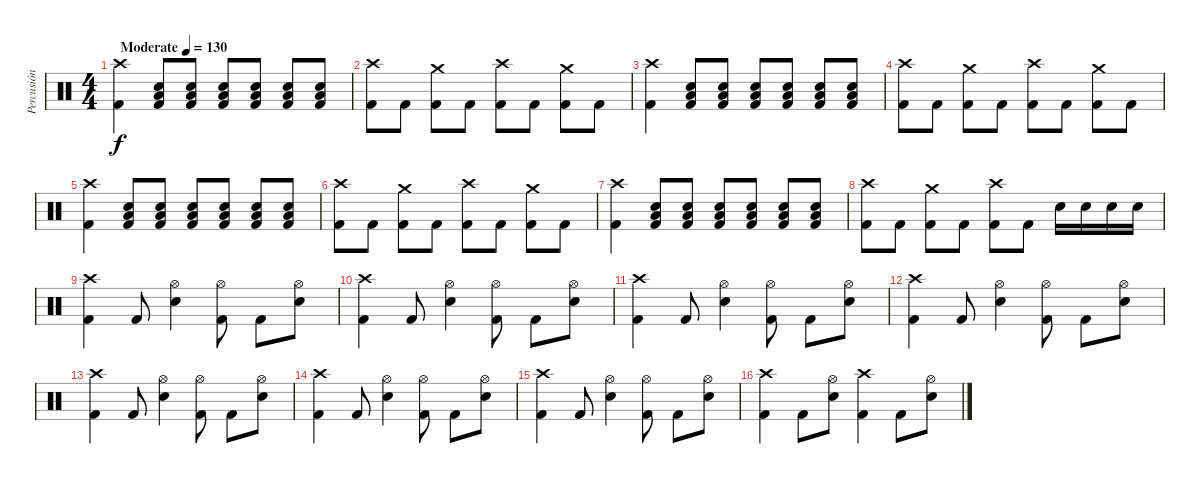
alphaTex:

\track ("Percusión" "Percusión") {instrument percussion}
\staff {score}
\articulation defaults
\ts (4 4)
\tempo (130 "Moderate")
\clef neutral
\ks c
("Crash high (hit)" "Kick (hit) 2").4{dy f} ("Low Floor Tom (hit)" "Snare (hit) 2" "Kick (hit) 2").8 ("Low Floor Tom (hit)" "Snare (hit) 2" "Kick (hit) 2").8 ("Low Floor Tom (hit)" "Snare (hit) 2" "Kick (hit) 2").8 ("Low Floor Tom (hit)" "Snare (hit) 2" "Kick (hit) 2").8 ("Low Floor Tom (hit)" "Snare (hit) 2" "Kick (hit) 2").8 ("Low Floor Tom (hit)" "Snare (hit) 2" "Kick (hit) 2").8 |
("Crash high (hit)" "Kick (hit) 2").8 "Kick (hit) 2".8 ("Crash medium (hit)" "Kick (hit) 2").8 "Kick (hit) 2".8 ("Crash high (hit)" "Kick (hit) 2").8 "Kick (hit) 2".8 ("Crash medium (hit)" "Kick (hit) 2").8 "Kick (hit) 2".8 |
("Crash high (hit)" "Kick (hit) 2").4 ("Low Floor Tom (hit)" "Snare (hit) 2" "Kick (hit) 2").8 ("Low Floor Tom (hit)" "Snare (hit) 2" "Kick (hit) 2").8 ("Low Floor Tom (hit)" "Snare (hit) 2" "Kick (hit) 2").8 ("Low Floor Tom (hit)" "Snare (hit) 2" "Kick (hit) 2").8 ("Low Floor Tom (hit)" "Snare (hit) 2" "Kick (hit) 2").8 ("Low Floor Tom (hit)" "Snare (hit) 2" "Kick (hit) 2").8 |
("Crash high (hit)" "Kick (hit) 2").8 "Kick (hit) 2".8 ("Crash medium (hit)" "Kick (hit) 2").8 "Kick (hit) 2".8 ("Crash high (hit)" "Kick (hit) 2").8 "Kick (hit) 2".8 ("Crash medium (hit)" "Kick (hit) 2").8 "Kick (hit) 2".8 |
("Crash high (hit)" "Kick (hit) 2").4 ("Low Floor Tom (hit)" "Snare (hit) 2" "Kick (hit) 2").8 ("Low Floor Tom (hit)" "Snare (hit) 2" "Kick (hit) 2").8 ("Low Floor Tom (hit)" "Snare (hit) 2" "Kick (hit) 2").8 ("Low Floor Tom (hit)" "Snare (hit) 2" "Kick (hit) 2").8 ("Low Floor Tom (hit)" "Snare (hit) 2" "Kick (hit) 2").8 ("Low Floor Tom (hit)" "Snare (hit) 2" "Kick (hit) 2").8 |
("Crash high (hit)" "Kick (hit) 2").8 "Kick (hit) 2".8 ("Crash medium (hit)" "Kick (hit) 2").8 "Kick (hit) 2".8 ("Crash high (hit)" "Kick (hit) 2").8 "Kick (hit) 2".8 ("Crash medium (hit)" "Kick (hit) 2").8 "Kick (hit) 2".8 |
("Crash high (hit)" "Kick (hit) 2").4 ("Low Floor Tom (hit)" "Snare (hit) 2" "Kick (hit) 2").8 ("Low Floor Tom (hit)" "Snare (hit) 2" "Kick (hit) 2").8 ("Low Floor Tom (hit)" "Snare (hit) 2" "Kick (hit) 2").8 ("Low Floor Tom (hit)" "Snare (hit) 2" "Kick (hit) 2").8 ("Low Floor Tom (hit)" "Snare (hit) 2" "Kick (hit) 2").8 ("Low Floor Tom (hit)" "Snare (hit) 2" "Kick (hit) 2").8 |
("Crash high (hit)" "Kick (hit) 2").8 "Kick (hit) 2".8 ("Crash medium (hit)" "Kick (hit) 2").8 "Kick (hit) 2".8 ("Crash high (hit)" "Kick (hit) 2").8 "Kick (hit) 2".8 "Snare (hit) 2".16 "Snare (hit) 2".16 "Snare (hit) 2".16 "Snare (hit) 2".16 |
("Crash high (hit)" "Kick (hit) 2").4 "Kick (hit) 2".8 ("Snare (hit) 2" "Hi-Hat (open)").4 ("Hi-Hat (open)" "Kick (hit) 2").8 "Kick (hit) 2".8 ("Snare (hit) 2" "Hi-Hat (open)").8 |
("Crash high (hit)" "Kick (hit) 2").4 "Kick (hit) 2".8 ("Snare (hit) 2" "Hi-Hat (open)").4 ("Hi-Hat (open)" "Kick (hit) 2").8 "Kick (hit) 2".8 ("Snare (hit) 2" "Hi-Hat (open)").8 |
("Crash high (hit)" "Kick (hit) 2").4 "Kick (hit) 2".8 ("Snare (hit) 2" "Hi-Hat (open)").4 ("Hi-Hat (open)" "Kick (hit) 2").8 "Kick (hit) 2".8 ("Snare (hit) 2" "Hi-Hat (open)").8 |
("Crash high (hit)" "Kick (hit) 2").4 "Kick (hit) 2".8 ("Snare (hit) 2" "Hi-Hat (open)").4 ("Hi-Hat (open)" "Kick (hit) 2").8 "Kick (hit) 2".8 ("Snare (hit) 2" "Hi-Hat (open)").8 |
("Crash high (hit)" "Kick (hit) 2").4 "Kick (hit) 2".8 ("Snare (hit) 2" "Hi-Hat (open)").4 ("Hi-Hat (open)" "Kick (hit) 2").8 "Kick (hit) 2".8 ("Snare (hit) 2" "Hi-Hat (open)").8 |
("Crash high (hit)" "Kick (hit) 2").4 "Kick (hit) 2".8 ("Snare (hit) 2" "Hi-Hat (open)").4 ("Hi-Hat (open)" "Kick (hit) 2").8 "Kick (hit) 2".8 ("Snare (hit) 2" "Hi-Hat (open)").8 |
("Crash high (hit)" "Kick (hit) 2").4 "Kick (hit) 2".8 ("Snare (hit) 2" "Hi-Hat (open)").4 ("Hi-Hat (open)" "Kick (hit) 2").8 "Kick (hit) 2".8 ("Snare (hit) 2" "Hi-Hat (open)").8 |
("Crash high (hit)" "Kick (hit) 2").4 "Kick (hit) 2".8 ("Snare (hit) 2" "Hi-Hat (open)").8 ("Crash high (hit)" "Kick (hit) 2").4 "Kick (hit) 2".8 ("Snare (hit) 2" "Hi-Hat (open)").8
